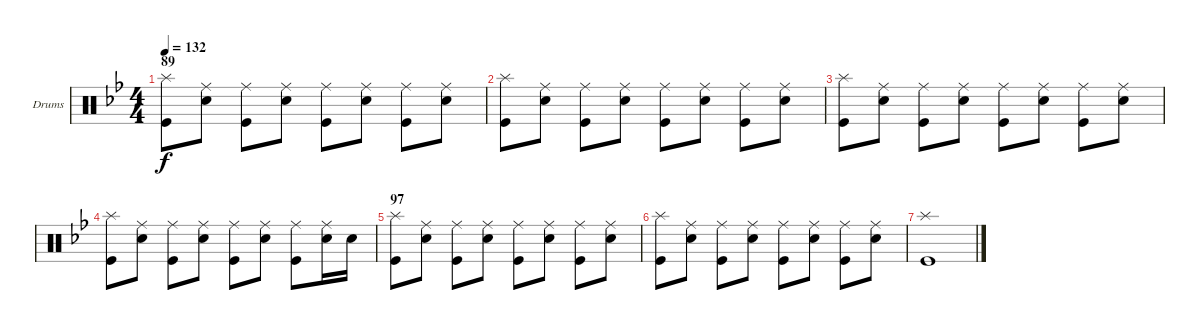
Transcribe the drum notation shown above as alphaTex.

\bracketExtendMode groupsimilarinstruments
\firstSystemTrackNameOrientation horizontal
\otherSystemsTrackNameOrientation horizontal
\track ("Drumkit" "Drums") {instrument percussion}
\staff {score}
\articulation defaults
\ts (4 4)
\section ("" "89")
\tempo 132
\clef neutral
\ks bb
("Kick (hit)" "Splash (hit)").8{dy f} ("Snare (hit) 2" "Ride (middle)").8 ("Kick (hit)" "Ride (middle)").8 ("Snare (hit) 2" "Ride (middle)").8 ("Kick (hit)" "Ride (middle)").8 ("Snare (hit) 2" "Ride (middle)").8 ("Kick (hit)" "Ride (middle)").8 ("Snare (hit) 2" "Ride (middle)").8 |
("Kick (hit)" "Splash (hit)").8 ("Snare (hit) 2" "Ride (middle)").8 ("Kick (hit)" "Ride (middle)").8 ("Snare (hit) 2" "Ride (middle)").8 ("Kick (hit)" "Ride (middle)").8 ("Snare (hit) 2" "Ride (middle)").8 ("Kick (hit)" "Ride (middle)").8 ("Snare (hit) 2" "Ride (middle)").8 |
("Kick (hit)" "Splash (hit)").8 ("Snare (hit) 2" "Ride (middle)").8 ("Kick (hit)" "Ride (middle)").8 ("Snare (hit) 2" "Ride (middle)").8 ("Kick (hit)" "Ride (middle)").8 ("Snare (hit) 2" "Ride (middle)").8 ("Kick (hit)" "Ride (middle)").8 ("Snare (hit) 2" "Ride (middle)").8 |
("Kick (hit)" "Splash (hit)").8 ("Snare (hit) 2" "Ride (middle)").8 ("Kick (hit)" "Ride (middle)").8 ("Snare (hit) 2" "Ride (middle)").8 ("Kick (hit)" "Ride (middle)").8 ("Snare (hit) 2" "Ride (middle)").8 ("Kick (hit)" "Ride (middle)").8 ("Snare (hit) 2" "Ride (middle)").16 "Snare (hit) 2".16 |
\section ("" "97")
("Kick (hit)" "Splash (hit)").8 ("Snare (hit) 2" "Ride (middle)").8 ("Kick (hit)" "Ride (middle)").8 ("Snare (hit) 2" "Ride (middle)").8 ("Kick (hit)" "Ride (middle)").8 ("Snare (hit) 2" "Ride (middle)").8 ("Kick (hit)" "Ride (middle)").8 ("Snare (hit) 2" "Ride (middle)").8 |
("Kick (hit)" "Splash (hit)").8 ("Snare (hit) 2" "Ride (middle)").8 ("Kick (hit)" "Ride (middle)").8 ("Snare (hit) 2" "Ride (middle)").8 ("Kick (hit)" "Ride (middle)").8 ("Snare (hit) 2" "Ride (middle)").8 ("Kick (hit)" "Ride (middle)").8 ("Snare (hit) 2" "Ride (middle)").8 |
("Kick (hit)" "Splash (hit)").1
